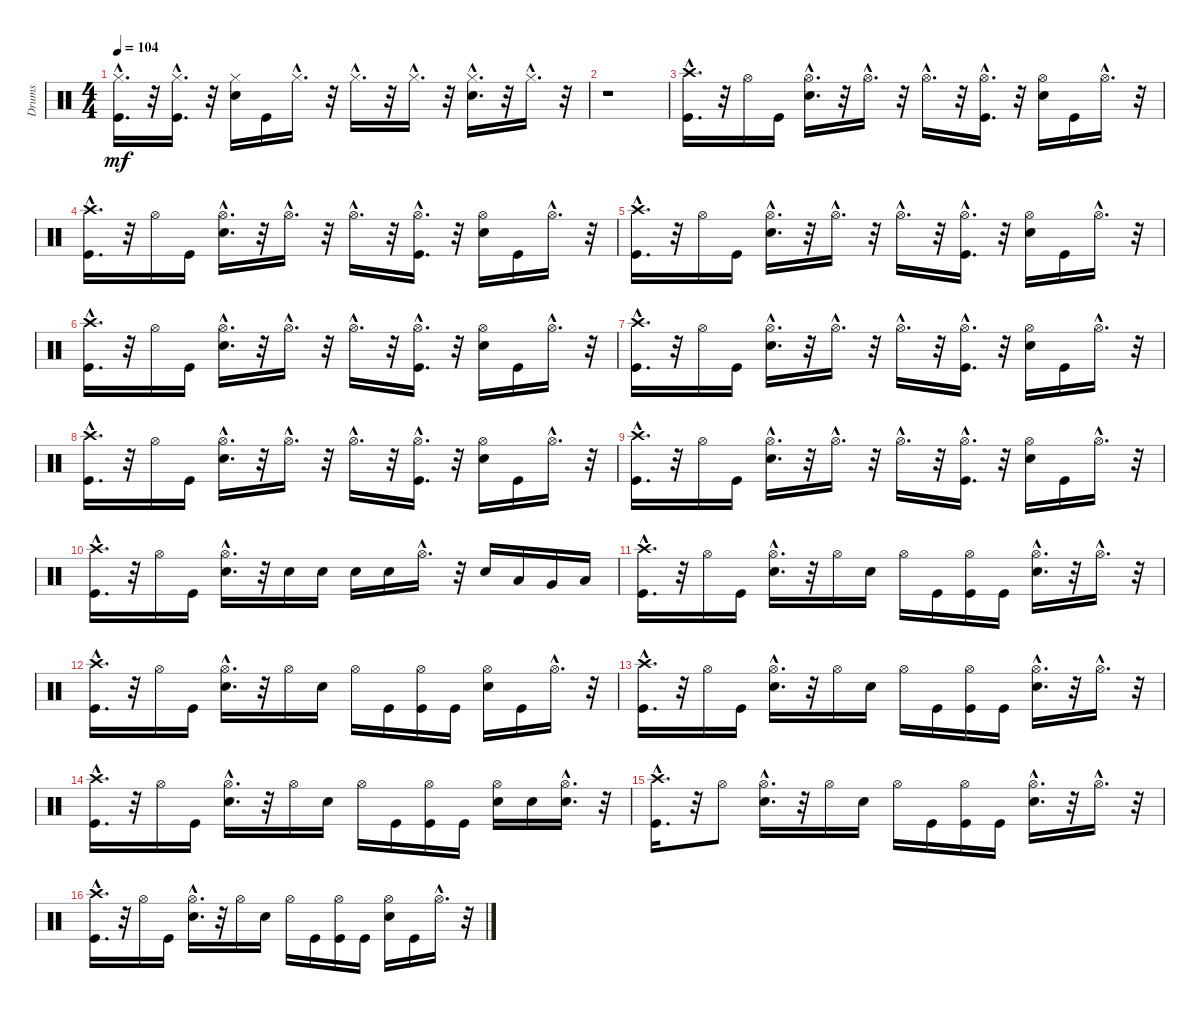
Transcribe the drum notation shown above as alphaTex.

\track ("Drums" "Drums") {instrument percussion}
\staff {score}
\articulation defaults
\ts (4 4)
\tempo 104
\clef neutral
\ks c
("Kick (hit)"{hac} "Hi-Hat (closed)"{hac}).16{d dy mf} r.32 ("Hi-Hat (closed)"{hac} "Kick (hit)"{hac}).16{d} r.32 ("Hi-Hat (closed)" "Electric Snare (hit)").16 "Kick (hit)".16 "Hi-Hat (closed)"{hac}.16{d} r.32 "Hi-Hat (closed)"{hac}.16{d} r.32 "Hi-Hat (closed)"{hac}.16{d} r.32 ("Electric Snare (hit)"{hac} "Hi-Hat (closed)"{hac}).16{d} r.32 "Hi-Hat (closed)"{hac}.16{d} r.32 |
r.1 |
("Crash high (hit)"{hac} "Kick (hit)"{hac}).16{d} r.32 "Hi-Hat (open)".16 "Kick (hit)".16 ("Hi-Hat (open)"{hac} "Electric Snare (hit)"{hac}).16{d} r.32 "Hi-Hat (open)"{hac}.16{d} r.32 "Hi-Hat (open)"{hac}.16{d} r.32 ("Hi-Hat (open)"{hac} "Kick (hit)"{hac}).16{d} r.32 ("Hi-Hat (open)" "Electric Snare (hit)").16 "Kick (hit)".16 "Hi-Hat (open)"{hac}.16{d} r.32 |
("Kick (hit)"{hac} "Crash high (hit)"{hac}).16{d} r.32 "Hi-Hat (open)".16 "Kick (hit)".16 ("Electric Snare (hit)"{hac} "Hi-Hat (open)"{hac}).16{d} r.32 "Hi-Hat (open)"{hac}.16{d} r.32 "Hi-Hat (open)"{hac}.16{d} r.32 ("Hi-Hat (open)"{hac} "Kick (hit)"{hac}).16{d} r.32 ("Electric Snare (hit)" "Hi-Hat (open)").16 "Kick (hit)".16 "Hi-Hat (open)"{hac}.16{d} r.32 |
("Crash high (hit)"{hac} "Kick (hit)"{hac}).16{d} r.32 "Hi-Hat (open)".16 "Kick (hit)".16 ("Hi-Hat (open)"{hac} "Electric Snare (hit)"{hac}).16{d} r.32 "Hi-Hat (open)"{hac}.16{d} r.32 "Hi-Hat (open)"{hac}.16{d} r.32 ("Kick (hit)"{hac} "Hi-Hat (open)"{hac}).16{d} r.32 ("Electric Snare (hit)" "Hi-Hat (open)").16 "Kick (hit)".16 "Hi-Hat (open)"{hac}.16{d} r.32 |
("Kick (hit)"{hac} "Crash high (hit)"{hac}).16{d} r.32 "Hi-Hat (open)".16 "Kick (hit)".16 ("Electric Snare (hit)"{hac} "Hi-Hat (open)"{hac}).16{d} r.32 "Hi-Hat (open)"{hac}.16{d} r.32 "Hi-Hat (open)"{hac}.16{d} r.32 ("Kick (hit)"{hac} "Hi-Hat (open)"{hac}).16{d} r.32 ("Electric Snare (hit)" "Hi-Hat (open)").16 "Kick (hit)".16 "Hi-Hat (open)"{hac}.16{d} r.32 |
("Kick (hit)"{hac} "Crash high (hit)"{hac}).16{d} r.32 "Hi-Hat (open)".16 "Kick (hit)".16 ("Hi-Hat (open)"{hac} "Electric Snare (hit)"{hac}).16{d} r.32 "Hi-Hat (open)"{hac}.16{d} r.32 "Hi-Hat (open)"{hac}.16{d} r.32 ("Kick (hit)"{hac} "Hi-Hat (open)"{hac}).16{d} r.32 ("Hi-Hat (open)" "Electric Snare (hit)").16 "Kick (hit)".16 "Hi-Hat (open)"{hac}.16{d} r.32 |
("Kick (hit)"{hac} "Crash high (hit)"{hac}).16{d} r.32 "Hi-Hat (open)".16 "Kick (hit)".16 ("Hi-Hat (open)"{hac} "Electric Snare (hit)"{hac}).16{d} r.32 "Hi-Hat (open)"{hac}.16{d} r.32 "Hi-Hat (open)"{hac}.16{d} r.32 ("Hi-Hat (open)"{hac} "Kick (hit)"{hac}).16{d} r.32 ("Hi-Hat (open)" "Electric Snare (hit)").16 "Kick (hit)".16 "Hi-Hat (open)"{hac}.16{d} r.32 |
("Kick (hit)"{hac} "Crash high (hit)"{hac}).16{d} r.32 "Hi-Hat (open)".16 "Kick (hit)".16 ("Hi-Hat (open)"{hac} "Electric Snare (hit)"{hac}).16{d} r.32 "Hi-Hat (open)"{hac}.16{d} r.32 "Hi-Hat (open)"{hac}.16{d} r.32 ("Hi-Hat (open)"{hac} "Kick (hit)"{hac}).16{d} r.32 ("Electric Snare (hit)" "Hi-Hat (open)").16 "Kick (hit)".16 "Hi-Hat (open)"{hac}.16{d} r.32 |
("Crash high (hit)"{hac} "Kick (hit)"{hac}).16{d} r.32 "Hi-Hat (open)".16 "Kick (hit)".16 ("Electric Snare (hit)"{hac} "Hi-Hat (open)"{hac}).16{d} r.32 "Electric Snare (hit)".16 "Electric Snare (hit)".16 "Electric Snare (hit)".16 "Electric Snare (hit)".16 "Hi-Hat (open)"{hac}.16{d} r.32 "Electric Snare (hit)".16 "Low Tom (hit)".16 "Very Low Tom (hit)".16 "Low Floor Tom (hit)".16 |
("Crash high (hit)"{hac} "Kick (hit)"{hac}).16{d} r.32 "Hi-Hat (open)".16 "Kick (hit)".16 ("Electric Snare (hit)"{hac} "Hi-Hat (open)"{hac}).16{d} r.32 "Hi-Hat (open)".16 "Electric Snare (hit)".16 "Hi-Hat (open)".16 "Kick (hit)".16 ("Kick (hit)" "Hi-Hat (open)").16 "Kick (hit)".16 ("Electric Snare (hit)"{hac} "Hi-Hat (open)"{hac}).16{d} r.32 "Hi-Hat (open)"{hac}.16{d} r.32 |
("Crash high (hit)"{hac} "Kick (hit)"{hac}).16{d} r.32 "Hi-Hat (open)".16 "Kick (hit)".16 ("Hi-Hat (open)"{hac} "Electric Snare (hit)"{hac}).16{d} r.32 "Hi-Hat (open)".16 "Electric Snare (hit)".16 "Hi-Hat (open)".16 "Kick (hit)".16 ("Kick (hit)" "Hi-Hat (open)").16 "Kick (hit)".16 ("Electric Snare (hit)" "Hi-Hat (open)").16 "Kick (hit)".16 "Hi-Hat (open)"{hac}.16{d} r.32 |
("Kick (hit)"{hac} "Crash high (hit)"{hac}).16{d} r.32 "Hi-Hat (open)".16 "Kick (hit)".16 ("Hi-Hat (open)"{hac} "Electric Snare (hit)"{hac}).16{d} r.32 "Hi-Hat (open)".16 "Electric Snare (hit)".16 "Hi-Hat (open)".16 "Kick (hit)".16 ("Hi-Hat (open)" "Kick (hit)").16 "Kick (hit)".16 ("Hi-Hat (open)"{hac} "Electric Snare (hit)"{hac}).16{d} r.32 "Hi-Hat (open)"{hac}.16{d} r.32 |
("Kick (hit)"{hac} "Crash high (hit)"{hac}).16{d} r.32 "Hi-Hat (open)".16 "Kick (hit)".16 ("Hi-Hat (open)"{hac} "Electric Snare (hit)"{hac}).16{d} r.32 "Hi-Hat (open)".16 "Electric Snare (hit)".16 "Hi-Hat (open)".16 "Kick (hit)".16 ("Hi-Hat (open)" "Kick (hit)").16 "Kick (hit)".16 ("Hi-Hat (open)" "Electric Snare (hit)").16 "Electric Snare (hit)".16 ("Electric Snare (hit)"{hac} "Hi-Hat (open)"{hac}).16{d} r.32 |
("Kick (hit)"{hac} "Crash high (hit)"{hac}).16{d} r.32 "Hi-Hat (open)".8 ("Hi-Hat (open)"{hac} "Electric Snare (hit)"{hac}).16{d} r.32 "Hi-Hat (open)".16 "Electric Snare (hit)".16 "Hi-Hat (open)".16 "Kick (hit)".16 ("Hi-Hat (open)" "Kick (hit)").16 "Kick (hit)".16 ("Electric Snare (hit)"{hac} "Hi-Hat (open)"{hac}).16{d} r.32 "Hi-Hat (open)"{hac}.16{d} r.32 |
("Crash high (hit)"{hac} "Kick (hit)"{hac}).16{d} r.32 "Hi-Hat (open)".16 "Kick (hit)".16 ("Hi-Hat (open)"{hac} "Electric Snare (hit)"{hac}).16{d} r.32 "Hi-Hat (open)".16 "Electric Snare (hit)".16 "Hi-Hat (open)".16 "Kick (hit)".16 ("Kick (hit)" "Hi-Hat (open)").16 "Kick (hit)".16 ("Electric Snare (hit)" "Hi-Hat (open)").16 "Kick (hit)".16 "Hi-Hat (open)"{hac}.16{d} r.32
